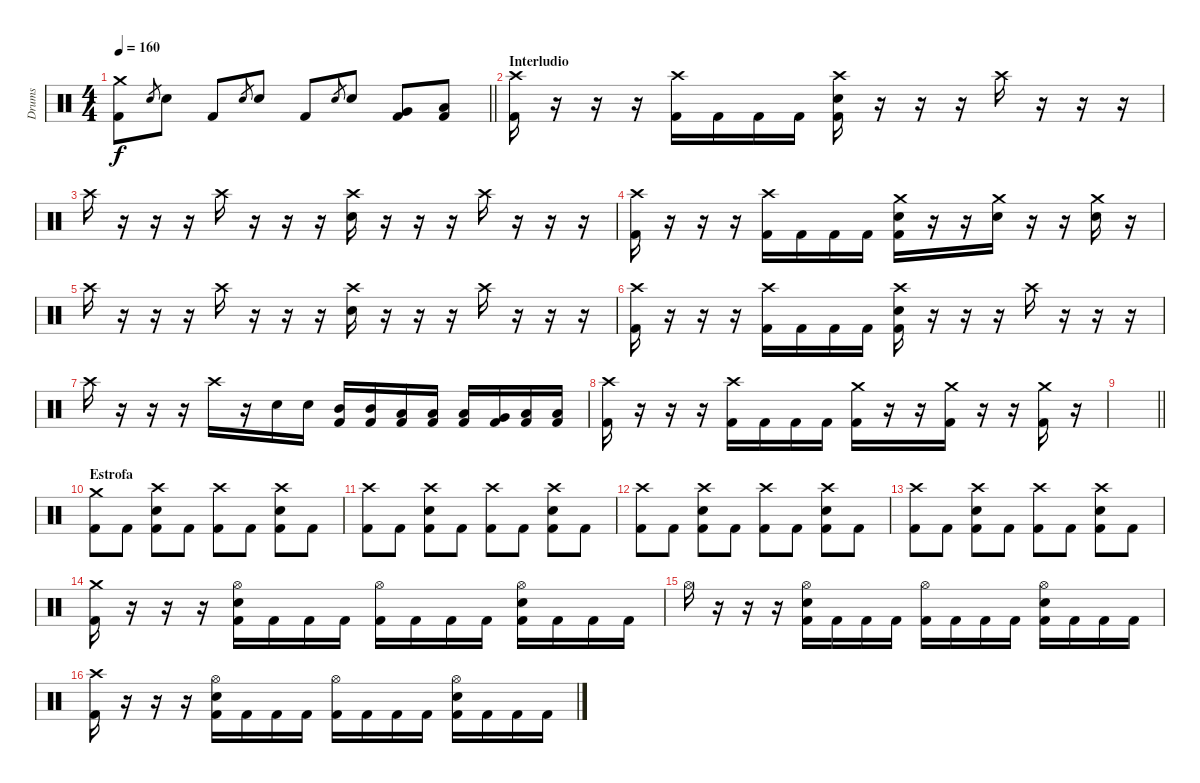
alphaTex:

\track ("Drums" "Drums") {instrument percussion}
\staff {score}
\articulation defaults
\ts (4 4)
\tempo 160
\clef neutral
\barLineRight lightlight
\ks c
("Crash medium (hit)" "Kick (hit) 2").8{dy f} "Electric Snare (hit)".8{gr} "Electric Snare (hit)".8 "Kick (hit) 2".8 "Electric Snare (hit)".8{gr} "Electric Snare (hit)".8 "Kick (hit) 2".8 "Electric Snare (hit)".8{gr} "Electric Snare (hit)".8 ("Very Low Tom (hit)" "Kick (hit) 2").8 ("Low Floor Tom (hit)" "Kick (hit) 2").8 |
\section ("" "Interludio")
("Crash high (hit)" "Kick (hit) 2").16 r.16 r.16 r.16 ("Crash high (hit)" "Kick (hit) 2").16 "Kick (hit) 2".16 "Kick (hit) 2".16 "Kick (hit) 2".16 ("Crash high (hit)" "Electric Snare (hit)" "Kick (hit) 2").16 r.16 r.16 r.16 "Crash high (hit)".16 r.16 r.16 r.16 |
"Crash high (hit)".16 r.16 r.16 r.16 "Crash high (hit)".16 r.16 r.16 r.16 ("Crash high (hit)" "Electric Snare (hit)").16 r.16 r.16 r.16 "Crash high (hit)".16 r.16 r.16 r.16 |
("Crash high (hit)" "Kick (hit) 2").16 r.16 r.16 r.16 ("Crash high (hit)" "Kick (hit) 2").16 "Kick (hit) 2".16 "Kick (hit) 2".16 "Kick (hit) 2".16 ("Crash medium (hit)" "Electric Snare (hit)" "Kick (hit) 2").16 r.16 r.16 ("Crash medium (hit)" "Electric Snare (hit)").16 r.16 r.16 ("Crash medium (hit)" "Electric Snare (hit)").16 r.16 |
"Crash high (hit)".16 r.16 r.16 r.16 "Crash high (hit)".16 r.16 r.16 r.16 ("Crash high (hit)" "Electric Snare (hit)").16 r.16 r.16 r.16 "Crash high (hit)".16 r.16 r.16 r.16 |
("Crash high (hit)" "Kick (hit) 2").16 r.16 r.16 r.16 ("Crash high (hit)" "Kick (hit) 2").16 "Kick (hit) 2".16 "Kick (hit) 2".16 "Kick (hit) 2".16 ("Crash high (hit)" "Electric Snare (hit)" "Kick (hit) 2").16 r.16 r.16 r.16 "Crash high (hit)".16 r.16 r.16 r.16 |
"Crash high (hit)".16 r.16 r.16 r.16 "Crash high (hit)".16 r.16 "Electric Snare (hit)".16 "Electric Snare (hit)".16 ("Mid Tom (hit)" "Kick (hit) 2").16 ("Mid Tom (hit)" "Kick (hit) 2").16 ("Low Tom (hit)" "Kick (hit) 2").16 ("Low Tom (hit)" "Kick (hit) 2").16 ("Low Tom (hit)" "Kick (hit) 2").16 ("Very Low Tom (hit)" "Kick (hit) 2").16 ("Low Floor Tom (hit)" "Kick (hit) 2").16 ("Low Floor Tom (hit)" "Kick (hit) 2").16 |
("Crash high (hit)" "Kick (hit) 2").16 r.16 r.16 r.16 ("Crash high (hit)" "Kick (hit) 2").16 "Kick (hit) 2".16 "Kick (hit) 2".16 "Kick (hit) 2".16 ("Crash medium (hit)" "Kick (hit) 2").16 r.16 r.16 ("Crash medium (hit)" "Kick (hit) 2").16 r.16 r.16 ("Crash medium (hit)" "Kick (hit) 2").16 r.16 |
\barLineRight lightlight
|
\section ("" "Estrofa")
("Crash medium (hit)" "Kick (hit) 2").8 "Kick (hit) 2".8 ("Crash high (hit)" "Electric Snare (hit)" "Kick (hit) 2").8 "Kick (hit) 2".8 ("Crash high (hit)" "Kick (hit) 2").8 "Kick (hit) 2".8 ("Crash high (hit)" "Electric Snare (hit)" "Kick (hit) 2").8 "Kick (hit) 2".8 |
("Crash high (hit)" "Kick (hit) 2").8 "Kick (hit) 2".8 ("Crash high (hit)" "Electric Snare (hit)" "Kick (hit) 2").8 "Kick (hit) 2".8 ("Crash high (hit)" "Kick (hit) 2").8 "Kick (hit) 2".8 ("Crash high (hit)" "Electric Snare (hit)" "Kick (hit) 2").8 "Kick (hit) 2".8 |
("Crash high (hit)" "Kick (hit) 2").8 "Kick (hit) 2".8 ("Crash high (hit)" "Electric Snare (hit)" "Kick (hit) 2").8 "Kick (hit) 2".8 ("Crash high (hit)" "Kick (hit) 2").8 "Kick (hit) 2".8 ("Crash high (hit)" "Electric Snare (hit)" "Kick (hit) 2").8 "Kick (hit) 2".8 |
("Crash high (hit)" "Kick (hit) 2").8 "Kick (hit) 2".8 ("Crash high (hit)" "Electric Snare (hit)" "Kick (hit) 2").8 "Kick (hit) 2".8 ("Crash high (hit)" "Kick (hit) 2").8 "Kick (hit) 2".8 ("Crash high (hit)" "Electric Snare (hit)" "Kick (hit) 2").8 "Kick (hit) 2".8 |
("Crash medium (hit)" "Kick (hit) 2").16 r.16 r.16 r.16 ("Hi-Hat (open)" "Electric Snare (hit)" "Kick (hit) 2").16 "Kick (hit) 2".16 "Kick (hit) 2".16 "Kick (hit) 2".16 ("Hi-Hat (open)" "Kick (hit) 2").16 "Kick (hit) 2".16 "Kick (hit) 2".16 "Kick (hit) 2".16 ("Hi-Hat (open)" "Electric Snare (hit)" "Kick (hit) 2").16 "Kick (hit) 2".16 "Kick (hit) 2".16 "Kick (hit) 2".16 |
"Hi-Hat (open)".16 r.16 r.16 r.16 ("Hi-Hat (open)" "Electric Snare (hit)" "Kick (hit) 2").16 "Kick (hit) 2".16 "Kick (hit) 2".16 "Kick (hit) 2".16 ("Hi-Hat (open)" "Kick (hit) 2").16 "Kick (hit) 2".16 "Kick (hit) 2".16 "Kick (hit) 2".16 ("Hi-Hat (open)" "Electric Snare (hit)" "Kick (hit) 2").16 "Kick (hit) 2".16 "Kick (hit) 2".16 "Kick (hit) 2".16 |
("Crash high (hit)" "Kick (hit) 2").16 r.16 r.16 r.16 ("Hi-Hat (open)" "Electric Snare (hit)" "Kick (hit) 2").16 "Kick (hit) 2".16 "Kick (hit) 2".16 "Kick (hit) 2".16 ("Hi-Hat (open)" "Kick (hit) 2").16 "Kick (hit) 2".16 "Kick (hit) 2".16 "Kick (hit) 2".16 ("Hi-Hat (open)" "Electric Snare (hit)" "Kick (hit) 2").16 "Kick (hit) 2".16 "Kick (hit) 2".16 "Kick (hit) 2".16
